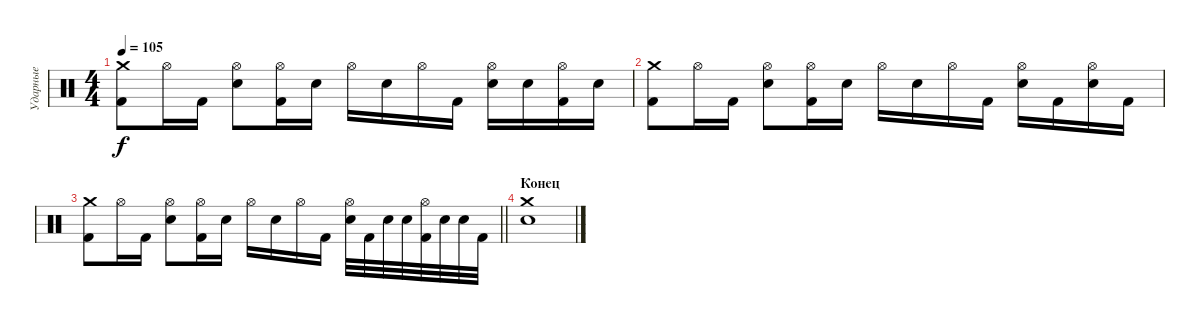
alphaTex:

\track ("Ударные" "Ударные") {instrument percussion}
\staff {score}
\articulation defaults
\ts (4 4)
\tempo 105
\clef neutral
\ks c
("Crash medium (hit)" "Kick (hit) 2").8{dy f} "Hi-Hat (open)".16 "Kick (hit) 2".16 ("Hi-Hat (open)" "Electric Snare (hit)").8 ("Hi-Hat (open)" "Kick (hit) 2").16 "Electric Snare (hit)".16 "Hi-Hat (open)".16 "Electric Snare (hit)".16 "Hi-Hat (open)".16 "Kick (hit) 2".16 ("Hi-Hat (open)" "Electric Snare (hit)").16 "Electric Snare (hit)".16 ("Hi-Hat (open)" "Kick (hit) 2").16 "Electric Snare (hit)".16 |
("Crash medium (hit)" "Kick (hit) 2").8 "Hi-Hat (open)".16 "Kick (hit) 2".16 ("Hi-Hat (open)" "Electric Snare (hit)").8 ("Hi-Hat (open)" "Kick (hit) 2").16 "Electric Snare (hit)".16 "Hi-Hat (open)".16 "Electric Snare (hit)".16 "Hi-Hat (open)".16 "Kick (hit) 2".16 ("Hi-Hat (open)" "Electric Snare (hit)").16 "Kick (hit) 2".16 ("Hi-Hat (open)" "Electric Snare (hit)").16 "Kick (hit) 2".16 |
\barLineRight lightlight
("Crash medium (hit)" "Kick (hit) 2").8 "Hi-Hat (open)".16 "Kick (hit) 2".16 ("Hi-Hat (open)" "Electric Snare (hit)").8 ("Hi-Hat (open)" "Kick (hit) 2").16 "Electric Snare (hit)".16 "Hi-Hat (open)".16 "Electric Snare (hit)".16 "Hi-Hat (open)".16 "Kick (hit) 2".16 ("Electric Snare (hit)" "Hi-Hat (open)").32 "Kick (hit) 2".32 "Electric Snare (hit)".32 "Electric Snare (hit)".32 ("Kick (hit) 2" "Hi-Hat (open)").32 "Electric Snare (hit)".32 "Electric Snare (hit)".32 "Kick (hit) 2".32 |
\section ("" "Конец")
("Crash medium (hit)" "Electric Snare (hit)").1
